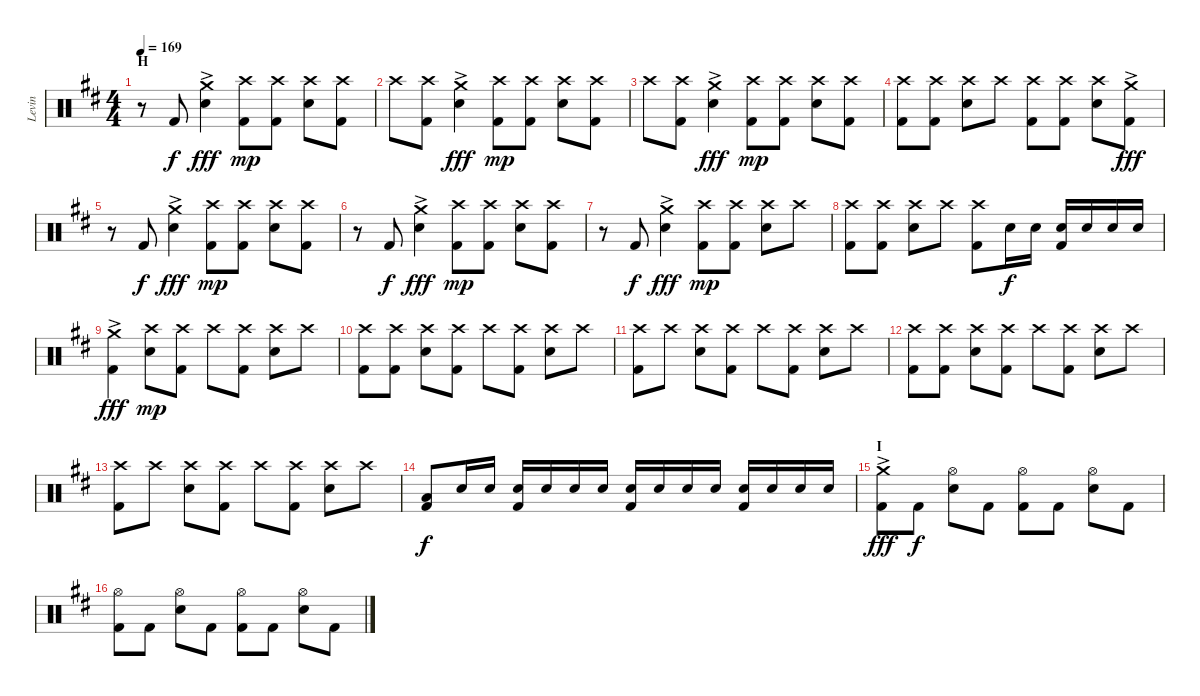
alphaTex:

\track ("Levin" "Levin") {instrument percussion}
\staff {score}
\articulation defaults
\ts (4 4)
\section ("" "H")
\tempo 169
\clef neutral
\ks d
r.8{dy fff} "Kick (hit) 2".8{dy f} ("Crash medium (hit)"{ac} "Electric Snare (hit)").4{dy fff} ("Crash high (hit)" "Kick (hit) 2").8{dy mp} ("Crash high (hit)" "Kick (hit) 2").8 ("Crash high (hit)" "Electric Snare (hit)").8 ("Crash high (hit)" "Kick (hit) 2").8 |
"Crash high (hit)".8 ("Crash high (hit)" "Kick (hit) 2").8 ("Crash medium (hit)"{ac} "Electric Snare (hit)").4{dy fff} ("Crash high (hit)" "Kick (hit) 2").8{dy mp} ("Crash high (hit)" "Kick (hit) 2").8 ("Crash high (hit)" "Electric Snare (hit)").8 ("Crash high (hit)" "Kick (hit) 2").8 |
"Crash high (hit)".8 ("Crash high (hit)" "Kick (hit) 2").8 ("Crash medium (hit)"{ac} "Electric Snare (hit)").4{dy fff} ("Crash high (hit)" "Kick (hit) 2").8{dy mp} ("Crash high (hit)" "Kick (hit) 2").8 ("Crash high (hit)" "Electric Snare (hit)").8 ("Crash high (hit)" "Kick (hit) 2").8 |
("Crash high (hit)" "Kick (hit) 2").8 ("Crash high (hit)" "Kick (hit) 2").8 ("Crash high (hit)" "Electric Snare (hit)").8 "Crash high (hit)".8 ("Crash high (hit)" "Kick (hit) 2").8 ("Crash high (hit)" "Kick (hit) 2").8 ("Crash high (hit)" "Electric Snare (hit)").8 ("Crash medium (hit)"{ac} "Kick (hit) 2").8{dy fff} |
r.8 "Kick (hit) 2".8{dy f} ("Crash medium (hit)"{ac} "Electric Snare (hit)").4{dy fff} ("Crash high (hit)" "Kick (hit) 2").8{dy mp} ("Crash high (hit)" "Kick (hit) 2").8 ("Crash high (hit)" "Electric Snare (hit)").8 ("Crash high (hit)" "Kick (hit) 2").8 |
r.8 "Kick (hit) 2".8{dy f} ("Crash medium (hit)"{ac} "Electric Snare (hit)").4{dy fff} ("Crash high (hit)" "Kick (hit) 2").8{dy mp} ("Crash high (hit)" "Kick (hit) 2").8 ("Crash high (hit)" "Electric Snare (hit)").8 ("Crash high (hit)" "Kick (hit) 2").8 |
r.8 "Kick (hit) 2".8{dy f} ("Crash medium (hit)"{ac} "Electric Snare (hit)").4{dy fff} ("Crash high (hit)" "Kick (hit) 2").8{dy mp} ("Crash high (hit)" "Kick (hit) 2").8 ("Crash high (hit)" "Electric Snare (hit)").8 "Crash high (hit)".8 |
("Crash high (hit)" "Kick (hit) 2").8 ("Crash high (hit)" "Kick (hit) 2").8 ("Crash high (hit)" "Electric Snare (hit)").8 "Crash high (hit)".8 ("Crash high (hit)" "Kick (hit) 2").8 "Electric Snare (hit)".16{dy f} "Electric Snare (hit)".16 ("Electric Snare (hit)" "Kick (hit) 2").16 "Electric Snare (hit)".16 "Electric Snare (hit)".16 "Electric Snare (hit)".16 |
("Crash medium (hit)"{ac} "Kick (hit) 2").4{dy fff} ("Crash high (hit)" "Electric Snare (hit)").8{dy mp} ("Crash high (hit)" "Kick (hit) 2").8 "Crash high (hit)".8 ("Crash high (hit)" "Kick (hit) 2").8 ("Crash high (hit)" "Electric Snare (hit)").8 "Crash high (hit)".8 |
("Crash high (hit)" "Kick (hit) 2").8 ("Crash high (hit)" "Kick (hit) 2").8 ("Crash high (hit)" "Electric Snare (hit)").8 ("Crash high (hit)" "Kick (hit) 2").8 "Crash high (hit)".8 ("Crash high (hit)" "Kick (hit) 2").8 ("Crash high (hit)" "Electric Snare (hit)").8 "Crash high (hit)".8 |
("Crash high (hit)" "Kick (hit) 2").8 "Crash high (hit)".8 ("Crash high (hit)" "Electric Snare (hit)").8 ("Crash high (hit)" "Kick (hit) 2").8 "Crash high (hit)".8 ("Crash high (hit)" "Kick (hit) 2").8 ("Crash high (hit)" "Electric Snare (hit)").8 "Crash high (hit)".8 |
("Crash high (hit)" "Kick (hit) 2").8 ("Crash high (hit)" "Kick (hit) 2").8 ("Crash high (hit)" "Electric Snare (hit)").8 ("Crash high (hit)" "Kick (hit) 2").8 "Crash high (hit)".8 ("Crash high (hit)" "Kick (hit) 2").8 ("Crash high (hit)" "Electric Snare (hit)").8 "Crash high (hit)".8 |
("Crash high (hit)" "Kick (hit) 2").8 "Crash high (hit)".8 ("Crash high (hit)" "Electric Snare (hit)").8 ("Crash high (hit)" "Kick (hit) 2").8 "Crash high (hit)".8 ("Crash high (hit)" "Kick (hit) 2").8 ("Crash high (hit)" "Electric Snare (hit)").8 "Crash high (hit)".8 |
("Low Tom (hit)" "Kick (hit) 2").8{dy f} "Electric Snare (hit)".16 "Electric Snare (hit)".16 ("Electric Snare (hit)" "Kick (hit) 2").16 "Electric Snare (hit)".16 "Electric Snare (hit)".16 "Electric Snare (hit)".16 ("Electric Snare (hit)" "Kick (hit) 2").16 "Electric Snare (hit)".16 "Electric Snare (hit)".16 "Electric Snare (hit)".16 ("Electric Snare (hit)" "Kick (hit) 2").16 "Electric Snare (hit)".16 "Electric Snare (hit)".16 "Electric Snare (hit)".16 |
\section ("" "I")
("Crash medium (hit)"{ac} "Kick (hit) 2").8{dy fff} "Kick (hit) 2".8{dy f} ("Hi-Hat (open)" "Electric Snare (hit)").8 "Kick (hit) 2".8 ("Hi-Hat (open)" "Kick (hit) 2").8 "Kick (hit) 2".8 ("Hi-Hat (open)" "Electric Snare (hit)").8 "Kick (hit) 2".8 |
("Hi-Hat (open)" "Kick (hit) 2").8 "Kick (hit) 2".8 ("Hi-Hat (open)" "Electric Snare (hit)").8 "Kick (hit) 2".8 ("Hi-Hat (open)" "Kick (hit) 2").8 "Kick (hit) 2".8 ("Hi-Hat (open)" "Electric Snare (hit)").8 "Kick (hit) 2".8
